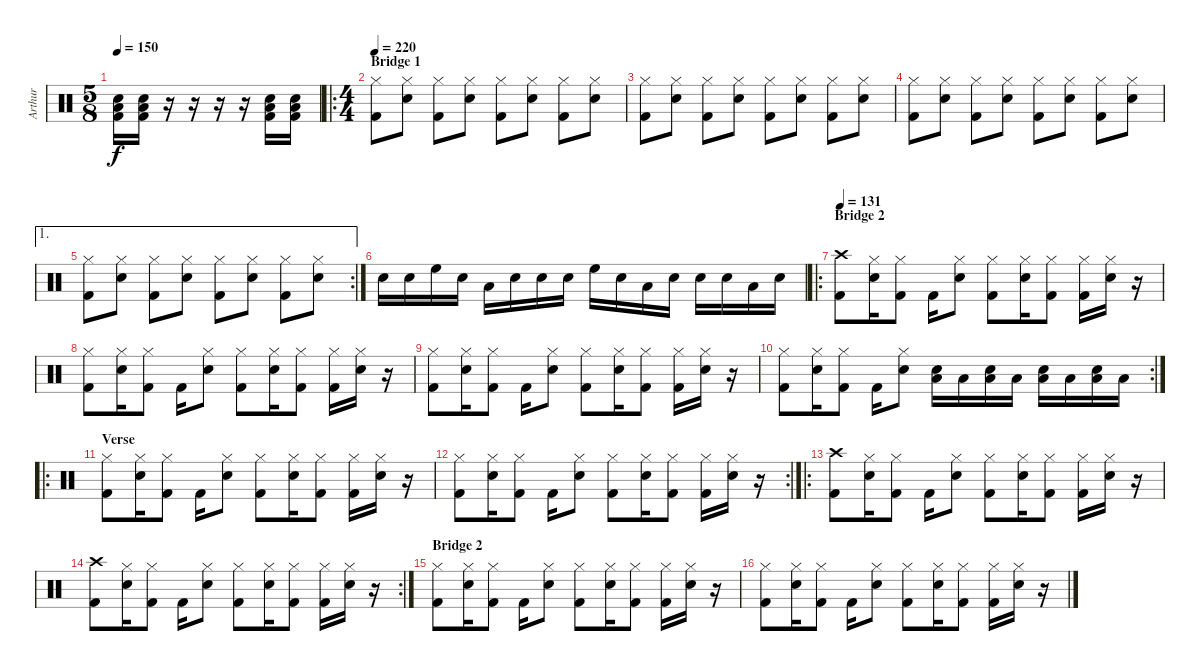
\track ("Arthur" "Arthur") {instrument percussion}
\staff {score}
\articulation defaults
\ts (5 8)
\tempo 150
\clef neutral
\ks c
("Low Floor Tom (hit)" "Kick (hit) 2" "Snare (hit) 2").16{dy f} ("Low Floor Tom (hit)" "Kick (hit) 2" "Snare (hit) 2").16 r.16 r.16 r.16 r.16 ("Low Floor Tom (hit)" "Kick (hit) 2" "Snare (hit) 2").16 ("Low Floor Tom (hit)" "Kick (hit) 2" "Snare (hit) 2").16 |
\ro
\ts (4 4)
\section ("" "Bridge 1")
\tempo 220
("Hi-Hat (closed)" "Kick (hit) 2").8 ("Hi-Hat (closed)" "Snare (hit) 2").8 ("Hi-Hat (closed)" "Kick (hit) 2").8 ("Hi-Hat (closed)" "Snare (hit) 2").8 ("Hi-Hat (closed)" "Kick (hit) 2").8 ("Hi-Hat (closed)" "Snare (hit) 2").8 ("Hi-Hat (closed)" "Kick (hit) 2").8 ("Hi-Hat (closed)" "Snare (hit) 2").8 |
("Hi-Hat (closed)" "Kick (hit) 2").8 ("Hi-Hat (closed)" "Snare (hit) 2").8 ("Hi-Hat (closed)" "Kick (hit) 2").8 ("Hi-Hat (closed)" "Snare (hit) 2").8 ("Hi-Hat (closed)" "Kick (hit) 2").8 ("Hi-Hat (closed)" "Snare (hit) 2").8 ("Hi-Hat (closed)" "Kick (hit) 2").8 ("Hi-Hat (closed)" "Snare (hit) 2").8 |
("Hi-Hat (closed)" "Kick (hit) 2").8 ("Hi-Hat (closed)" "Snare (hit) 2").8 ("Hi-Hat (closed)" "Kick (hit) 2").8 ("Hi-Hat (closed)" "Snare (hit) 2").8 ("Hi-Hat (closed)" "Kick (hit) 2").8 ("Hi-Hat (closed)" "Snare (hit) 2").8 ("Hi-Hat (closed)" "Kick (hit) 2").8 ("Hi-Hat (closed)" "Snare (hit) 2").8 |
\ae 1
\rc 2
("Hi-Hat (closed)" "Kick (hit) 2").8 ("Hi-Hat (closed)" "Snare (hit) 2").8 ("Hi-Hat (closed)" "Kick (hit) 2").8 ("Hi-Hat (closed)" "Snare (hit) 2").8 ("Hi-Hat (closed)" "Kick (hit) 2").8 ("Hi-Hat (closed)" "Snare (hit) 2").8 ("Hi-Hat (closed)" "Kick (hit) 2").8 ("Hi-Hat (closed)" "Snare (hit) 2").8 |
"Snare (hit) 2".16 "Snare (hit) 2".16 "High Floor Tom (hit)".16 "Snare (hit) 2".16 "Low Tom (hit)".16 "Snare (hit) 2".16 "Snare (hit) 2".16 "Snare (hit) 2".16 "High Floor Tom (hit)".16 "Snare (hit) 2".16 "Low Tom (hit)".16 "Snare (hit) 2".16 "Snare (hit) 2".16 "Snare (hit) 2".16 "Low Tom (hit)".16 "Snare (hit) 2".16 |
\ro
\section ("" "Bridge 2")
\tempo 131
("Crash high (hit)" "Kick (hit) 2").8 ("Hi-Hat (closed)" "Snare (hit) 2").16 ("Hi-Hat (closed)" "Kick (hit) 2").8 "Kick (hit) 2".16 ("Hi-Hat (closed)" "Snare (hit) 2").8 ("Hi-Hat (closed)" "Kick (hit) 2").8 ("Hi-Hat (closed)" "Snare (hit) 2").16 ("Hi-Hat (closed)" "Kick (hit) 2").8 ("Hi-Hat (closed)" "Kick (hit) 2").16 ("Hi-Hat (closed)" "Snare (hit) 2").16 r.16 |
("Hi-Hat (closed)" "Kick (hit) 2").8 ("Hi-Hat (closed)" "Snare (hit) 2").16 ("Hi-Hat (closed)" "Kick (hit) 2").8 "Kick (hit) 2".16 ("Hi-Hat (closed)" "Snare (hit) 2").8 ("Hi-Hat (closed)" "Kick (hit) 2").8 ("Hi-Hat (closed)" "Snare (hit) 2").16 ("Hi-Hat (closed)" "Kick (hit) 2").8 ("Hi-Hat (closed)" "Kick (hit) 2").16 ("Hi-Hat (closed)" "Snare (hit) 2").16 r.16 |
("Hi-Hat (closed)" "Kick (hit) 2").8 ("Hi-Hat (closed)" "Snare (hit) 2").16 ("Hi-Hat (closed)" "Kick (hit) 2").8 "Kick (hit) 2".16 ("Hi-Hat (closed)" "Snare (hit) 2").8 ("Hi-Hat (closed)" "Kick (hit) 2").8 ("Hi-Hat (closed)" "Snare (hit) 2").16 ("Hi-Hat (closed)" "Kick (hit) 2").8 ("Hi-Hat (closed)" "Kick (hit) 2").16 ("Hi-Hat (closed)" "Snare (hit) 2").16 r.16 |
\rc 2
("Hi-Hat (closed)" "Kick (hit) 2").8 ("Hi-Hat (closed)" "Snare (hit) 2").16 ("Hi-Hat (closed)" "Kick (hit) 2").8 "Kick (hit) 2".16 ("Hi-Hat (closed)" "Snare (hit) 2").8 ("Low Floor Tom (hit)" "Snare (hit) 2").16 "Low Floor Tom (hit)".16 ("Low Floor Tom (hit)" "Snare (hit) 2").16 "Low Floor Tom (hit)".16 ("Low Floor Tom (hit)" "Snare (hit) 2").16 "Low Floor Tom (hit)".16 ("Low Floor Tom (hit)" "Snare (hit) 2").16 "Low Floor Tom (hit)".16 |
\ro
\section ("" "Verse")
("Hi-Hat (closed)" "Kick (hit) 2").8 ("Hi-Hat (closed)" "Snare (hit) 2").16 ("Hi-Hat (closed)" "Kick (hit) 2").8 "Kick (hit) 2".16 ("Hi-Hat (closed)" "Snare (hit) 2").8 ("Hi-Hat (closed)" "Kick (hit) 2").8 ("Hi-Hat (closed)" "Snare (hit) 2").16 ("Hi-Hat (closed)" "Kick (hit) 2").8 ("Hi-Hat (closed)" "Kick (hit) 2").16 ("Hi-Hat (closed)" "Snare (hit) 2").16 r.16 |
\rc 2
("Hi-Hat (closed)" "Kick (hit) 2").8 ("Hi-Hat (closed)" "Snare (hit) 2").16 ("Hi-Hat (closed)" "Kick (hit) 2").8 "Kick (hit) 2".16 ("Hi-Hat (closed)" "Snare (hit) 2").8 ("Hi-Hat (closed)" "Kick (hit) 2").8 ("Hi-Hat (closed)" "Snare (hit) 2").16 ("Hi-Hat (closed)" "Kick (hit) 2").8 ("Hi-Hat (closed)" "Kick (hit) 2").16 ("Hi-Hat (closed)" "Snare (hit) 2").16 r.16 |
\ro
("Crash high (hit)" "Kick (hit) 2").8 ("Hi-Hat (closed)" "Snare (hit) 2").16 ("Hi-Hat (closed)" "Kick (hit) 2").8 "Kick (hit) 2".16 ("Hi-Hat (closed)" "Snare (hit) 2").8 ("Hi-Hat (closed)" "Kick (hit) 2").8 ("Hi-Hat (closed)" "Snare (hit) 2").16 ("Hi-Hat (closed)" "Kick (hit) 2").8 ("Hi-Hat (closed)" "Kick (hit) 2").16 ("Hi-Hat (closed)" "Snare (hit) 2").16 r.16 |
\rc 2
("Crash high (hit)" "Kick (hit) 2").8 ("Hi-Hat (closed)" "Snare (hit) 2").16 ("Hi-Hat (closed)" "Kick (hit) 2").8 "Kick (hit) 2".16 ("Hi-Hat (closed)" "Snare (hit) 2").8 ("Hi-Hat (closed)" "Kick (hit) 2").8 ("Hi-Hat (closed)" "Snare (hit) 2").16 ("Hi-Hat (closed)" "Kick (hit) 2").8 ("Hi-Hat (closed)" "Kick (hit) 2").16 ("Hi-Hat (closed)" "Snare (hit) 2").16 r.16 |
\section ("" "Bridge 2")
("Hi-Hat (closed)" "Kick (hit) 2").8 ("Hi-Hat (closed)" "Snare (hit) 2").16 ("Hi-Hat (closed)" "Kick (hit) 2").8 "Kick (hit) 2".16 ("Hi-Hat (closed)" "Snare (hit) 2").8 ("Hi-Hat (closed)" "Kick (hit) 2").8 ("Hi-Hat (closed)" "Snare (hit) 2").16 ("Hi-Hat (closed)" "Kick (hit) 2").8 ("Hi-Hat (closed)" "Kick (hit) 2").16 ("Hi-Hat (closed)" "Snare (hit) 2").16 r.16 |
("Hi-Hat (closed)" "Kick (hit) 2").8 ("Hi-Hat (closed)" "Snare (hit) 2").16 ("Hi-Hat (closed)" "Kick (hit) 2").8 "Kick (hit) 2".16 ("Hi-Hat (closed)" "Snare (hit) 2").8 ("Hi-Hat (closed)" "Kick (hit) 2").8 ("Hi-Hat (closed)" "Snare (hit) 2").16 ("Hi-Hat (closed)" "Kick (hit) 2").8 ("Hi-Hat (closed)" "Kick (hit) 2").16 ("Hi-Hat (closed)" "Snare (hit) 2").16 r.16
